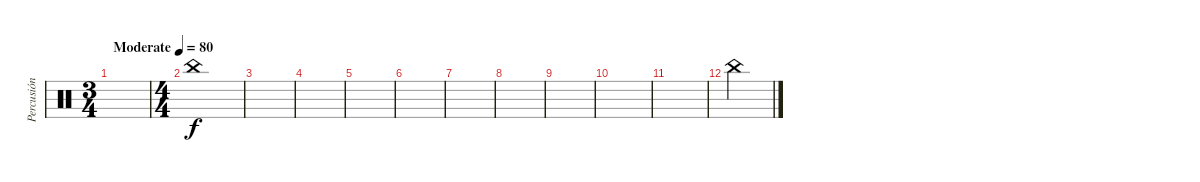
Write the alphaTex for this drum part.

\track ("Percusión" "Percusión") {instrument percussion}
\staff {score}
\articulation defaults
\ts (3 4)
\tempo (80 "Moderate")
\clef neutral
\ks c
|
\ts (4 4)
"China (hit)".1 |
|
|
|
|
|
|
|
|
|
"China (hit)".4
